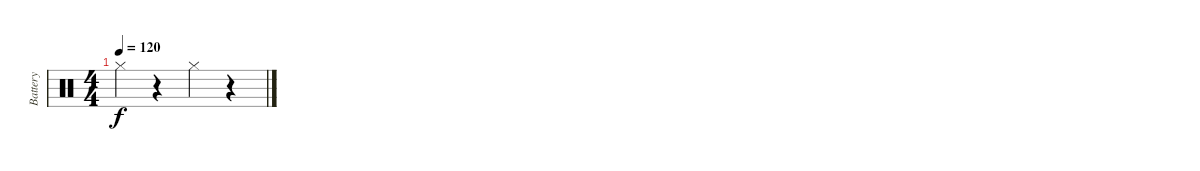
\track ("Battery" "Battery") {instrument percussion}
\staff {score}
\articulation defaults
\ts (4 4)
\tempo 120
\clef neutral
\ks c "Hi-Hat (closed)".4{dy f}
r.4 "Hi-Hat (closed)".4 r.4
